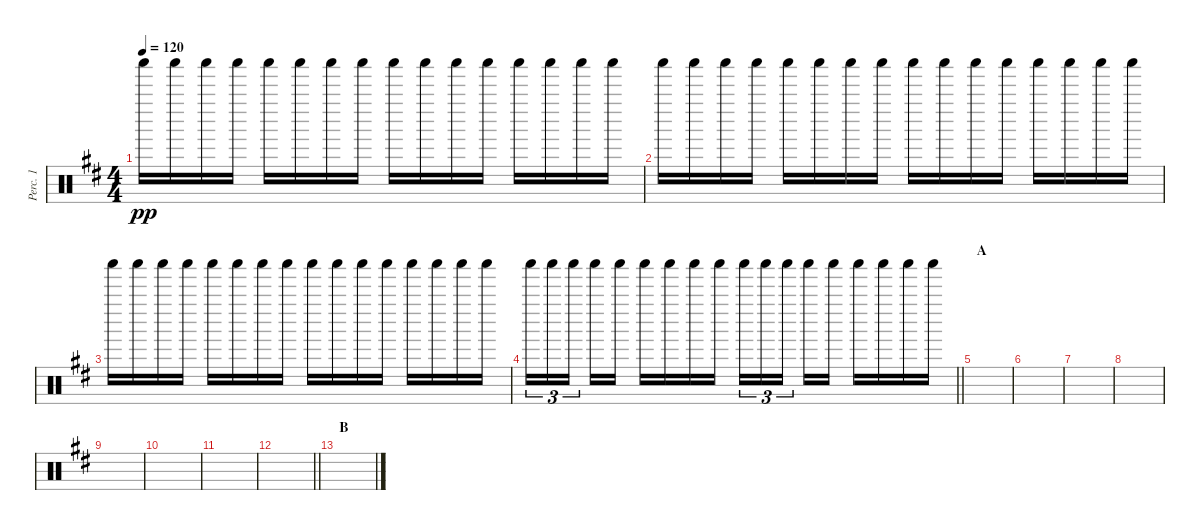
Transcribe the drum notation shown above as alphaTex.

\track ("Perc. 1" "Perc. 1") {instrument percussion}
\staff {score}
\articulation defaults
\ts (4 4)
\tempo 120
\clef neutral
\ks d "Shaker (hit)".16{dy pp} "Shaker (hit)".16 "Shaker (hit)".16 "Shaker (hit)".16 "Shaker (hit)".16 "Shaker (hit)".16 "Shaker (hit)".16 "Shaker (hit)".16 "Shaker (hit)".16 "Shaker (hit)".16 "Shaker (hit)".16 "Shaker (hit)".16 "Shaker (hit)".16 "Shaker (hit)".16 "Shaker (hit)".16 "Shaker (hit)".16
|
"Shaker (hit)".16 "Shaker (hit)".16 "Shaker (hit)".16 "Shaker (hit)".16 "Shaker (hit)".16 "Shaker (hit)".16 "Shaker (hit)".16 "Shaker (hit)".16 "Shaker (hit)".16 "Shaker (hit)".16 "Shaker (hit)".16 "Shaker (hit)".16 "Shaker (hit)".16 "Shaker (hit)".16 "Shaker (hit)".16 "Shaker (hit)".16 |
"Shaker (hit)".16 "Shaker (hit)".16 "Shaker (hit)".16 "Shaker (hit)".16 "Shaker (hit)".16 "Shaker (hit)".16 "Shaker (hit)".16 "Shaker (hit)".16 "Shaker (hit)".16 "Shaker (hit)".16 "Shaker (hit)".16 "Shaker (hit)".16 "Shaker (hit)".16 "Shaker (hit)".16 "Shaker (hit)".16 "Shaker (hit)".16 |
\barLineRight lightlight "Shaker (hit)".16{tu (3 2)} "Shaker (hit)".16{tu (3 2)} "Shaker (hit)".16{tu (3 2) beam splitsecondary} "Shaker (hit)".16 "Shaker (hit)".16 "Shaker (hit)".16 "Shaker (hit)".16 "Shaker (hit)".16 "Shaker (hit)".16 "Shaker (hit)".16{tu (3 2)} "Shaker (hit)".16{tu (3 2)} "Shaker (hit)".16{tu (3 2) beam splitsecondary} "Shaker (hit)".16 "Shaker (hit)".16 "Shaker (hit)".16 "Shaker (hit)".16 "Shaker (hit)".16 "Shaker (hit)".16
|
\section ("" "A")
|
|
|
|
|
|
|
\barLineRight lightlight
|
\section ("" "B")
